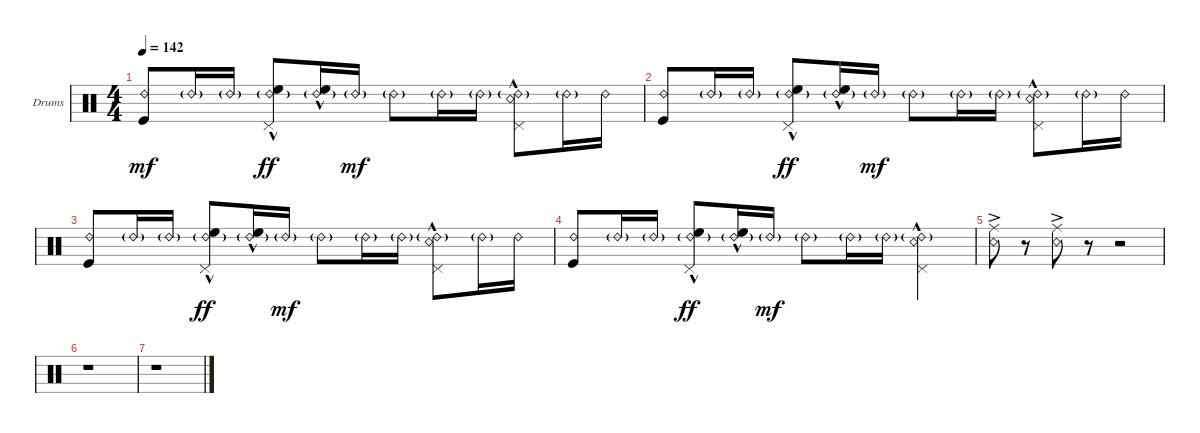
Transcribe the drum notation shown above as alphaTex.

\defaultSystemsLayout 4
\bracketExtendMode groupsimilarinstruments
\firstSystemTrackNameOrientation horizontal
\otherSystemsTrackNameOrientation horizontal
\track ("Drums" "Drums") {instrument percussion}
\staff {score}
\articulation defaults
\ts (4 4)
\tempo 142
\clef neutral
\scale
0.333333
\ks c
("Ride (bell) 2" "Kick (hit)").8{dy mf} "Ride (bell) 2"{g}.16 "Ride (bell) 2"{g}.16 ("Ride (bell) 2"{g} "High Floor Tom (hit)"{hac} "Pedal Hi-Hat (hit)").8{dy ff} ("Ride (bell) 2"{g} "High Floor Tom (hit)"{hac}).16 "Ride (bell) 2"{g}.16{dy mf} "Ride (bell) 2"{g}.8 "Ride (bell) 2"{g}.16 "Ride (bell) 2"{g}.16 ("Ride (bell) 2"{g} "Snare (rim shot)"{hac} "Pedal Hi-Hat (hit)").8 "Ride (bell) 2"{g}.16 "Ride (bell) 2".16 |
\scale
0.333333 ("Ride (bell) 2" "Kick (hit)").8 "Ride (bell) 2"{g}.16 "Ride (bell) 2"{g}.16 ("Ride (bell) 2"{g} "High Floor Tom (hit)"{hac} "Pedal Hi-Hat (hit)").8{dy ff} ("Ride (bell) 2"{g} "High Floor Tom (hit)"{hac}).16 "Ride (bell) 2"{g}.16{dy mf} "Ride (bell) 2"{g}.8 "Ride (bell) 2"{g}.16 "Ride (bell) 2"{g}.16 ("Ride (bell) 2"{g} "Snare (rim shot)"{hac} "Pedal Hi-Hat (hit)").8 "Ride (bell) 2"{g}.16 "Ride (bell) 2".16 |
\scale
0.333333 ("Ride (bell) 2" "Kick (hit)").8 "Ride (bell) 2"{g}.16 "Ride (bell) 2"{g}.16 ("Ride (bell) 2"{g} "High Floor Tom (hit)"{hac} "Pedal Hi-Hat (hit)").8{dy ff} ("Ride (bell) 2"{g} "High Floor Tom (hit)"{hac}).16 "Ride (bell) 2"{g}.16{dy mf} "Ride (bell) 2"{g}.8 "Ride (bell) 2"{g}.16 "Ride (bell) 2"{g}.16 ("Ride (bell) 2"{g} "Snare (rim shot)"{hac} "Pedal Hi-Hat (hit)").8 "Ride (bell) 2"{g}.16 "Ride (bell) 2".16 |
\scale
0.333333 ("Ride (bell) 2" "Kick (hit)").8 "Ride (bell) 2"{g}.16 "Ride (bell) 2"{g}.16 ("Ride (bell) 2"{g} "High Floor Tom (hit)"{hac} "Pedal Hi-Hat (hit)").8{dy ff} ("Ride (bell) 2"{g} "High Floor Tom (hit)"{hac}).16 "Ride (bell) 2"{g}.16{dy mf} "Ride (bell) 2"{g}.8 "Ride (bell) 2"{g}.16 "Ride (bell) 2"{g}.16 ("Ride (bell) 2"{g} "Snare (rim shot)"{hac} "Pedal Hi-Hat (hit)").4 |
\scale
0.333333 ("Snare (rim shot)"{ac} "Ride (middle)"{ac}).8 r.8 ("Snare (rim shot)"{ac} "Ride (middle)"{ac}).8 r.8 r.2 |
r.1 |
r.1
